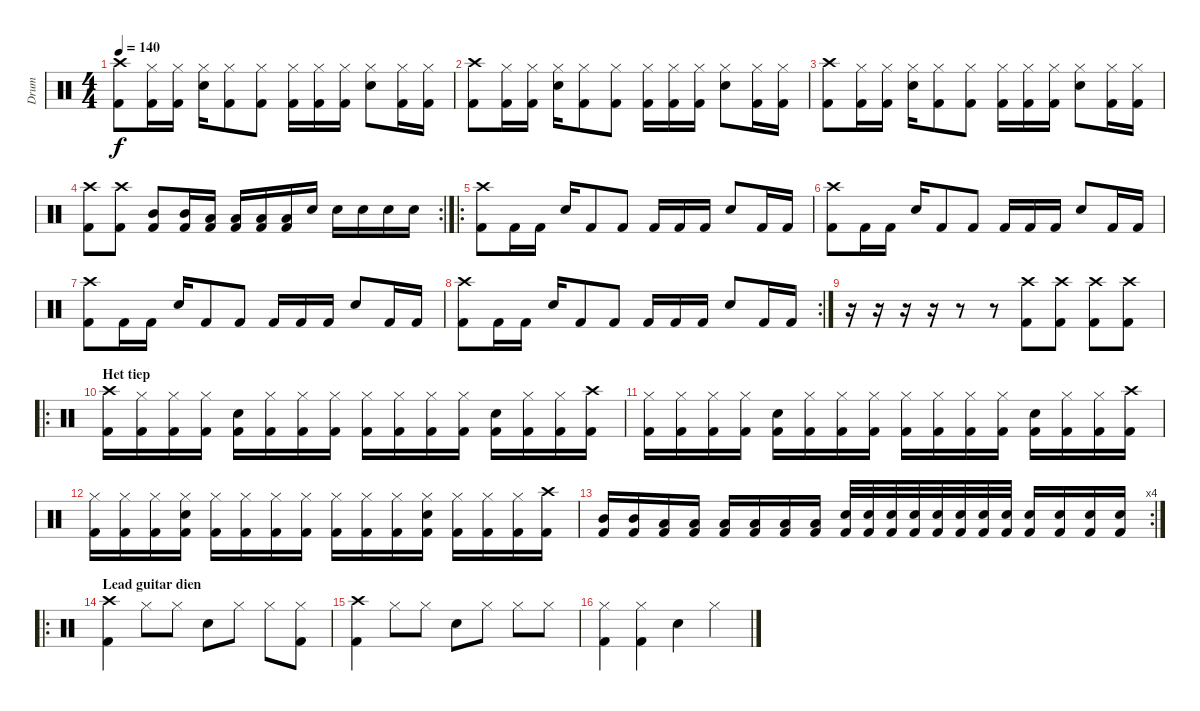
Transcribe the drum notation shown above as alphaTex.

\track ("Drum" "Drum") {instrument percussion}
\staff {score}
\articulation defaults
\ts (4 4)
\tempo 140
\clef neutral
\ks c
("Crash high (hit)" "Kick (hit) 2").8{dy f} ("Hi-Hat (closed)" "Kick (hit) 2").16 ("Hi-Hat (closed)" "Kick (hit) 2").16 ("Snare (hit) 2" "Hi-Hat (closed)").16 ("Hi-Hat (closed)" "Kick (hit) 2").8 ("Hi-Hat (closed)" "Kick (hit) 2").8 ("Hi-Hat (closed)" "Kick (hit) 2").16 ("Hi-Hat (closed)" "Kick (hit) 2").16 ("Hi-Hat (closed)" "Kick (hit) 2").16 ("Snare (hit) 2" "Hi-Hat (closed)").8 ("Hi-Hat (closed)" "Kick (hit) 2").16 ("Hi-Hat (closed)" "Kick (hit) 2").16 |
("Crash high (hit)" "Kick (hit) 2").8 ("Hi-Hat (closed)" "Kick (hit) 2").16 ("Hi-Hat (closed)" "Kick (hit) 2").16 ("Snare (hit) 2" "Hi-Hat (closed)").16 ("Hi-Hat (closed)" "Kick (hit) 2").8 ("Hi-Hat (closed)" "Kick (hit) 2").8 ("Hi-Hat (closed)" "Kick (hit) 2").16 ("Hi-Hat (closed)" "Kick (hit) 2").16 ("Hi-Hat (closed)" "Kick (hit) 2").16 ("Snare (hit) 2" "Hi-Hat (closed)").8 ("Hi-Hat (closed)" "Kick (hit) 2").16 ("Hi-Hat (closed)" "Kick (hit) 2").16 |
("Crash high (hit)" "Kick (hit) 2").8 ("Hi-Hat (closed)" "Kick (hit) 2").16 ("Hi-Hat (closed)" "Kick (hit) 2").16 ("Snare (hit) 2" "Hi-Hat (closed)").16 ("Hi-Hat (closed)" "Kick (hit) 2").8 ("Hi-Hat (closed)" "Kick (hit) 2").8 ("Hi-Hat (closed)" "Kick (hit) 2").16 ("Hi-Hat (closed)" "Kick (hit) 2").16 ("Hi-Hat (closed)" "Kick (hit) 2").16 ("Snare (hit) 2" "Hi-Hat (closed)").8 ("Hi-Hat (closed)" "Kick (hit) 2").16 ("Hi-Hat (closed)" "Kick (hit) 2").16 |
\rc 2
("Crash high (hit)" "Kick (hit) 2").8 ("Crash high (hit)" "Kick (hit) 2").8 ("Mid Tom (hit)" "Kick (hit) 2").8 ("Mid Tom (hit)" "Kick (hit) 2").16 ("Low Tom (hit)" "Kick (hit) 2").16 ("Low Tom (hit)" "Kick (hit) 2").16 ("Low Floor Tom (hit)" "Kick (hit) 2").16 ("Low Floor Tom (hit)" "Kick (hit) 2").16 "Snare (hit) 2".16 "Snare (hit) 2".16 "Snare (hit) 2".16 "Snare (hit) 2".16 "Snare (hit) 2".16 |
\ro
("Crash high (hit)" "Kick (hit) 2").8 "Kick (hit) 2".16 "Kick (hit) 2".16 "Snare (hit) 2".16 "Kick (hit) 2".8 "Kick (hit) 2".8 "Kick (hit) 2".16 "Kick (hit) 2".16 "Kick (hit) 2".16 "Snare (hit) 2".8 "Kick (hit) 2".16 "Kick (hit) 2".16 |
("Crash high (hit)" "Kick (hit) 2").8 "Kick (hit) 2".16 "Kick (hit) 2".16 "Snare (hit) 2".16 "Kick (hit) 2".8 "Kick (hit) 2".8 "Kick (hit) 2".16 "Kick (hit) 2".16 "Kick (hit) 2".16 "Snare (hit) 2".8 "Kick (hit) 2".16 "Kick (hit) 2".16 |
("Crash high (hit)" "Kick (hit) 2").8 "Kick (hit) 2".16 "Kick (hit) 2".16 "Snare (hit) 2".16 "Kick (hit) 2".8 "Kick (hit) 2".8 "Kick (hit) 2".16 "Kick (hit) 2".16 "Kick (hit) 2".16 "Snare (hit) 2".8 "Kick (hit) 2".16 "Kick (hit) 2".16 |
\rc 2
("Crash high (hit)" "Kick (hit) 2").8 "Kick (hit) 2".16 "Kick (hit) 2".16 "Snare (hit) 2".16 "Kick (hit) 2".8 "Kick (hit) 2".8 "Kick (hit) 2".16 "Kick (hit) 2".16 "Kick (hit) 2".16 "Snare (hit) 2".8 "Kick (hit) 2".16 "Kick (hit) 2".16 |
r.16 r.16 r.16 r.16 r.8 r.8 ("Crash high (hit)" "Kick (hit) 2").8 ("Crash high (hit)" "Kick (hit) 2").8 ("Crash high (hit)" "Kick (hit) 2").8 ("Crash high (hit)" "Kick (hit) 2").8 |
\ro
\section ("" "Het tiep")
("Crash high (hit)" "Kick (hit) 2").16{volume 14 balance 8} ("Hi-Hat (closed)" "Kick (hit) 2").16 ("Hi-Hat (closed)" "Kick (hit) 2").16 ("Hi-Hat (closed)" "Kick (hit) 2").16 ("Snare (hit) 2" "Kick (hit) 2").16 ("Hi-Hat (closed)" "Kick (hit) 2").16 ("Hi-Hat (closed)" "Kick (hit) 2").16 ("Hi-Hat (closed)" "Kick (hit) 2").16 ("Hi-Hat (closed)" "Kick (hit) 2").16 ("Hi-Hat (closed)" "Kick (hit) 2").16 ("Hi-Hat (closed)" "Kick (hit) 2").16 ("Hi-Hat (closed)" "Kick (hit) 2").16 ("Snare (hit) 2" "Kick (hit) 2").16 ("Hi-Hat (closed)" "Kick (hit) 2").16 ("Hi-Hat (closed)" "Kick (hit) 2").16 ("Crash high (hit)" "Kick (hit) 2").16 |
("Hi-Hat (closed)" "Kick (hit) 2").16 ("Hi-Hat (closed)" "Kick (hit) 2").16 ("Hi-Hat (closed)" "Kick (hit) 2").16 ("Hi-Hat (closed)" "Kick (hit) 2").16 ("Snare (hit) 2" "Kick (hit) 2").16 ("Hi-Hat (closed)" "Kick (hit) 2").16 ("Hi-Hat (closed)" "Kick (hit) 2").16 ("Hi-Hat (closed)" "Kick (hit) 2").16 ("Hi-Hat (closed)" "Kick (hit) 2").16 ("Hi-Hat (closed)" "Kick (hit) 2").16 ("Hi-Hat (closed)" "Kick (hit) 2").16 ("Hi-Hat (closed)" "Kick (hit) 2").16 ("Snare (hit) 2" "Kick (hit) 2").16 ("Hi-Hat (closed)" "Kick (hit) 2").16 ("Hi-Hat (closed)" "Kick (hit) 2").16 ("Crash high (hit)" "Kick (hit) 2").16 |
("Hi-Hat (closed)" "Kick (hit) 2").16 ("Hi-Hat (closed)" "Kick (hit) 2").16 ("Hi-Hat (closed)" "Kick (hit) 2").16 ("Snare (hit) 2" "Hi-Hat (closed)" "Kick (hit) 2").16 ("Hi-Hat (closed)" "Kick (hit) 2").16 ("Hi-Hat (closed)" "Kick (hit) 2").16 ("Hi-Hat (closed)" "Kick (hit) 2").16 ("Hi-Hat (closed)" "Kick (hit) 2").16 ("Hi-Hat (closed)" "Kick (hit) 2").16 ("Hi-Hat (closed)" "Kick (hit) 2").16 ("Hi-Hat (closed)" "Kick (hit) 2").16 ("Snare (hit) 2" "Hi-Hat (closed)" "Kick (hit) 2").16 ("Hi-Hat (closed)" "Kick (hit) 2").16 ("Hi-Hat (closed)" "Kick (hit) 2").16 ("Hi-Hat (closed)" "Kick (hit) 2").16 ("Crash high (hit)" "Kick (hit) 2").16 |
\rc 4
("Mid Tom (hit)" "Kick (hit) 2").16 ("Mid Tom (hit)" "Kick (hit) 2").16 ("Low Tom (hit)" "Kick (hit) 2").16 ("Low Tom (hit)" "Kick (hit) 2").16 ("Low Floor Tom (hit)" "Kick (hit) 2").16 ("Low Floor Tom (hit)" "Kick (hit) 2").16 ("Low Floor Tom (hit)" "Kick (hit) 2").16 ("Low Floor Tom (hit)" "Kick (hit) 2").16 ("Snare (hit) 2" "Kick (hit) 2").32 ("Snare (hit) 2" "Kick (hit) 2").32 ("Snare (hit) 2" "Kick (hit) 2").32 ("Snare (hit) 2" "Kick (hit) 2").32 ("Snare (hit) 2" "Kick (hit) 2").32 ("Snare (hit) 2" "Kick (hit) 2").32 ("Snare (hit) 2" "Kick (hit) 2").32 ("Snare (hit) 2" "Kick (hit) 2").32 ("Snare (hit) 2" "Kick (hit) 2").16 ("Snare (hit) 2" "Kick (hit) 2").16 ("Snare (hit) 2" "Kick (hit) 2").16 ("Snare (hit) 2" "Kick (hit) 2").16 |
\ro
\section ("" "Lead guitar dien")
("Crash high (hit)" "Kick (hit) 2").4 "Hi-Hat (closed)".8 "Hi-Hat (closed)".8 "Snare (hit) 2".8 "Hi-Hat (closed)".8 "Hi-Hat (closed)".8 ("Hi-Hat (closed)" "Kick (hit) 2").8 |
("Crash high (hit)" "Kick (hit) 2").4 "Hi-Hat (closed)".8 "Hi-Hat (closed)".8 "Snare (hit) 2".8 "Hi-Hat (closed)".8 "Hi-Hat (closed)".8 "Hi-Hat (closed)".8 |
("Hi-Hat (closed)" "Kick (hit) 2").4 ("Hi-Hat (closed)" "Kick (hit) 2").4 "Snare (hit) 2".4 "Hi-Hat (closed)".4
